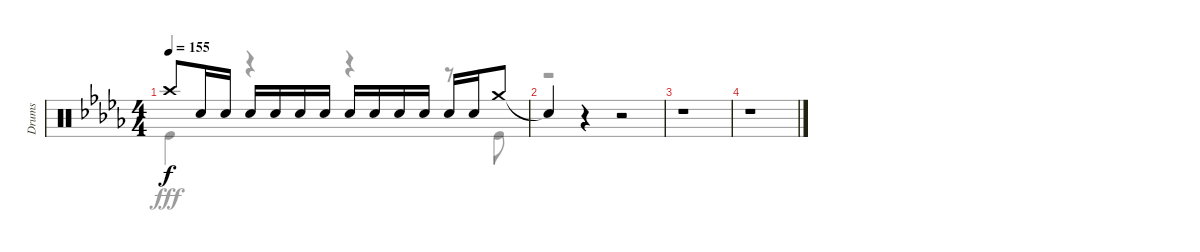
\track ("Drums" "Drums") {instrument percussion}
\staff {score}
\articulation defaults
\voice
\ts (4 4)
\tempo 155
\clef neutral
\ks db "Crash high (hit)".8{dy f} "Snare (hit) 2".16 "Snare (hit) 2".16 "Snare (hit) 2".16 "Snare (hit) 2".16 "Snare (hit) 2".16 "Snare (hit) 2".16 "Snare (hit) 2".16 "Snare (hit) 2".16 "Snare (hit) 2".16 "Snare (hit) 2".16 "Snare (hit) 2".16 "Snare (hit) 2".16 "Crash medium (hit)".8
|
"Snare (hit)"{t}.4 r.4 r.2 |
r.1 |
r.1
\voice
\clef neutral
\ottava regular
\simile none
\ks db "Kick (hit)".4{dy fff}
r.4 r.4 r.8 "Kick (hit)".8 |
r.1 |
r.1 |
r.1
